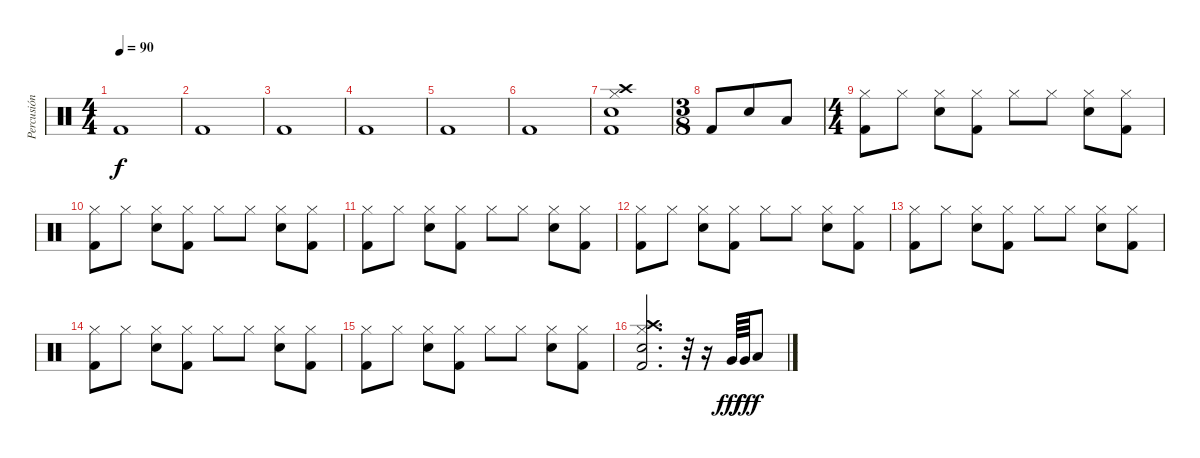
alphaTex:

\track ("Percusión" "Percusión") {instrument percussion}
\staff {score}
\articulation defaults
\ts (4 4)
\tempo 90
\clef neutral
\ks c "Kick (hit) 2".1{dy f}
|
"Kick (hit) 2".1 |
"Kick (hit) 2".1 |
"Kick (hit) 2".1 |
"Kick (hit) 2".1 |
"Kick (hit) 2".1 |
("Crash high (hit)" "Hi-Hat (closed)" "Snare (hit) 2" "Kick (hit) 2").1 |
\ts (3 8)
"Kick (hit) 2".8 "Snare (hit) 2".8 "Low Floor Tom (hit)".8 |
\ts (4 4)
("Hi-Hat (closed)" "Kick (hit) 2").8 "Hi-Hat (closed)".8 ("Hi-Hat (closed)" "Snare (hit) 2").8 ("Hi-Hat (closed)" "Kick (hit) 2").8 "Hi-Hat (closed)".8 "Hi-Hat (closed)".8 ("Hi-Hat (closed)" "Snare (hit) 2").8 ("Hi-Hat (closed)" "Kick (hit) 2").8 |
("Hi-Hat (closed)" "Kick (hit) 2").8 "Hi-Hat (closed)".8 ("Hi-Hat (closed)" "Snare (hit) 2").8 ("Hi-Hat (closed)" "Kick (hit) 2").8 "Hi-Hat (closed)".8 "Hi-Hat (closed)".8 ("Hi-Hat (closed)" "Snare (hit) 2").8 ("Hi-Hat (closed)" "Kick (hit) 2").8 |
("Hi-Hat (closed)" "Kick (hit) 2").8 "Hi-Hat (closed)".8 ("Hi-Hat (closed)" "Snare (hit) 2").8 ("Hi-Hat (closed)" "Kick (hit) 2").8 "Hi-Hat (closed)".8 "Hi-Hat (closed)".8 ("Hi-Hat (closed)" "Snare (hit) 2").8 ("Hi-Hat (closed)" "Kick (hit) 2").8 |
("Hi-Hat (closed)" "Kick (hit) 2").8 "Hi-Hat (closed)".8 ("Hi-Hat (closed)" "Snare (hit) 2").8 ("Hi-Hat (closed)" "Kick (hit) 2").8 "Hi-Hat (closed)".8 "Hi-Hat (closed)".8 ("Hi-Hat (closed)" "Snare (hit) 2").8 ("Hi-Hat (closed)" "Kick (hit) 2").8 |
("Hi-Hat (closed)" "Kick (hit) 2").8 "Hi-Hat (closed)".8 ("Hi-Hat (closed)" "Snare (hit) 2").8 ("Hi-Hat (closed)" "Kick (hit) 2").8 "Hi-Hat (closed)".8 "Hi-Hat (closed)".8 ("Hi-Hat (closed)" "Snare (hit) 2").8 ("Hi-Hat (closed)" "Kick (hit) 2").8 |
("Hi-Hat (closed)" "Kick (hit) 2").8 "Hi-Hat (closed)".8 ("Hi-Hat (closed)" "Snare (hit) 2").8 ("Hi-Hat (closed)" "Kick (hit) 2").8 "Hi-Hat (closed)".8 "Hi-Hat (closed)".8 ("Hi-Hat (closed)" "Snare (hit) 2").8 ("Hi-Hat (closed)" "Kick (hit) 2").8 |
("Hi-Hat (closed)" "Kick (hit) 2").8 "Hi-Hat (closed)".8 ("Hi-Hat (closed)" "Snare (hit) 2").8 ("Hi-Hat (closed)" "Kick (hit) 2").8 "Hi-Hat (closed)".8 "Hi-Hat (closed)".8 ("Hi-Hat (closed)" "Snare (hit) 2").8 ("Hi-Hat (closed)" "Kick (hit) 2").8 |
("Crash high (hit)" "Hi-Hat (closed)" "Snare (hit) 2" "Kick (hit) 2").2{d} r.32 r.16 "Very Low Tom (hit)".64{dy fff} "Very Low Tom (hit)".64{dy ff} "Low Floor Tom (hit)".8{dy f}
